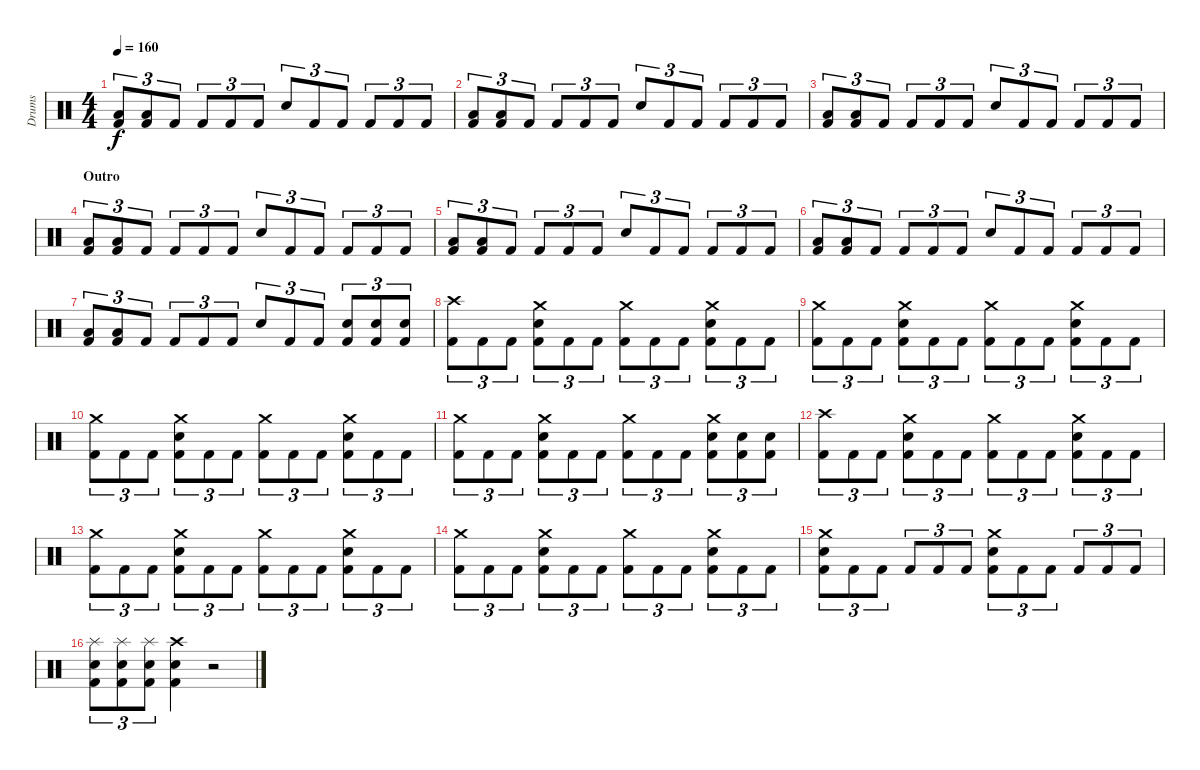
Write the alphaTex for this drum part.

\track ("Drums" "Drums") {instrument percussion}
\staff {score}
\articulation defaults
\ts (4 4)
\tempo 160
\clef neutral
\ks c
("Low Tom (hit)" "Kick (hit) 2").8{tu (3 2) dy f} ("Low Tom (hit)" "Kick (hit) 2").8{tu (3 2)} "Kick (hit) 2".8{tu (3 2)} "Kick (hit) 2".8{tu (3 2)} "Kick (hit) 2".8{tu (3 2)} "Kick (hit) 2".8{tu (3 2)} "Electric Snare (hit)".8{tu (3 2)} "Kick (hit) 2".8{tu (3 2)} "Kick (hit) 2".8{tu (3 2)} "Kick (hit) 2".8{tu (3 2)} "Kick (hit) 2".8{tu (3 2)} "Kick (hit) 2".8{tu (3 2)} |
("Low Tom (hit)" "Kick (hit) 2").8{tu (3 2)} ("Low Tom (hit)" "Kick (hit) 2").8{tu (3 2)} "Kick (hit) 2".8{tu (3 2)} "Kick (hit) 2".8{tu (3 2)} "Kick (hit) 2".8{tu (3 2)} "Kick (hit) 2".8{tu (3 2)} "Electric Snare (hit)".8{tu (3 2)} "Kick (hit) 2".8{tu (3 2)} "Kick (hit) 2".8{tu (3 2)} "Kick (hit) 2".8{tu (3 2)} "Kick (hit) 2".8{tu (3 2)} "Kick (hit) 2".8{tu (3 2)} |
("Low Tom (hit)" "Kick (hit) 2").8{tu (3 2)} ("Low Tom (hit)" "Kick (hit) 2").8{tu (3 2)} "Kick (hit) 2".8{tu (3 2)} "Kick (hit) 2".8{tu (3 2)} "Kick (hit) 2".8{tu (3 2)} "Kick (hit) 2".8{tu (3 2)} "Electric Snare (hit)".8{tu (3 2)} "Kick (hit) 2".8{tu (3 2)} "Kick (hit) 2".8{tu (3 2)} "Kick (hit) 2".8{tu (3 2)} "Kick (hit) 2".8{tu (3 2)} "Kick (hit) 2".8{tu (3 2)} |
\section ("" "Outro")
("Low Tom (hit)" "Kick (hit) 2").8{tu (3 2)} ("Low Tom (hit)" "Kick (hit) 2").8{tu (3 2)} "Kick (hit) 2".8{tu (3 2)} "Kick (hit) 2".8{tu (3 2)} "Kick (hit) 2".8{tu (3 2)} "Kick (hit) 2".8{tu (3 2)} "Electric Snare (hit)".8{tu (3 2)} "Kick (hit) 2".8{tu (3 2)} "Kick (hit) 2".8{tu (3 2)} "Kick (hit) 2".8{tu (3 2)} "Kick (hit) 2".8{tu (3 2)} "Kick (hit) 2".8{tu (3 2)} |
("Low Tom (hit)" "Kick (hit) 2").8{tu (3 2)} ("Low Tom (hit)" "Kick (hit) 2").8{tu (3 2)} "Kick (hit) 2".8{tu (3 2)} "Kick (hit) 2".8{tu (3 2)} "Kick (hit) 2".8{tu (3 2)} "Kick (hit) 2".8{tu (3 2)} "Electric Snare (hit)".8{tu (3 2)} "Kick (hit) 2".8{tu (3 2)} "Kick (hit) 2".8{tu (3 2)} "Kick (hit) 2".8{tu (3 2)} "Kick (hit) 2".8{tu (3 2)} "Kick (hit) 2".8{tu (3 2)} |
("Low Tom (hit)" "Kick (hit) 2").8{tu (3 2)} ("Low Tom (hit)" "Kick (hit) 2").8{tu (3 2)} "Kick (hit) 2".8{tu (3 2)} "Kick (hit) 2".8{tu (3 2)} "Kick (hit) 2".8{tu (3 2)} "Kick (hit) 2".8{tu (3 2)} "Electric Snare (hit)".8{tu (3 2)} "Kick (hit) 2".8{tu (3 2)} "Kick (hit) 2".8{tu (3 2)} "Kick (hit) 2".8{tu (3 2)} "Kick (hit) 2".8{tu (3 2)} "Kick (hit) 2".8{tu (3 2)} |
("Low Tom (hit)" "Kick (hit) 2").8{tu (3 2)} ("Low Tom (hit)" "Kick (hit) 2").8{tu (3 2)} "Kick (hit) 2".8{tu (3 2)} "Kick (hit) 2".8{tu (3 2)} "Kick (hit) 2".8{tu (3 2)} "Kick (hit) 2".8{tu (3 2)} "Electric Snare (hit)".8{tu (3 2)} "Kick (hit) 2".8{tu (3 2)} "Kick (hit) 2".8{tu (3 2)} ("Electric Snare (hit)" "Kick (hit) 2").8{tu (3 2)} ("Electric Snare (hit)" "Kick (hit) 2").8{tu (3 2)} ("Electric Snare (hit)" "Kick (hit) 2").8{tu (3 2)} |
("Crash high (hit)" "Kick (hit) 2").8{tu (3 2)} "Kick (hit) 2".8{tu (3 2)} "Kick (hit) 2".8{tu (3 2)} ("Crash medium (hit)" "Electric Snare (hit)" "Kick (hit) 2").8{tu (3 2)} "Kick (hit) 2".8{tu (3 2)} "Kick (hit) 2".8{tu (3 2)} ("Crash medium (hit)" "Kick (hit) 2").8{tu (3 2)} "Kick (hit) 2".8{tu (3 2)} "Kick (hit) 2".8{tu (3 2)} ("Crash medium (hit)" "Electric Snare (hit)" "Kick (hit) 2").8{tu (3 2)} "Kick (hit) 2".8{tu (3 2)} "Kick (hit) 2".8{tu (3 2)} |
("Crash medium (hit)" "Kick (hit) 2").8{tu (3 2)} "Kick (hit) 2".8{tu (3 2)} "Kick (hit) 2".8{tu (3 2)} ("Crash medium (hit)" "Electric Snare (hit)" "Kick (hit) 2").8{tu (3 2)} "Kick (hit) 2".8{tu (3 2)} "Kick (hit) 2".8{tu (3 2)} ("Crash medium (hit)" "Kick (hit) 2").8{tu (3 2)} "Kick (hit) 2".8{tu (3 2)} "Kick (hit) 2".8{tu (3 2)} ("Crash medium (hit)" "Electric Snare (hit)" "Kick (hit) 2").8{tu (3 2)} "Kick (hit) 2".8{tu (3 2)} "Kick (hit) 2".8{tu (3 2)} |
("Crash medium (hit)" "Kick (hit) 2").8{tu (3 2)} "Kick (hit) 2".8{tu (3 2)} "Kick (hit) 2".8{tu (3 2)} ("Crash medium (hit)" "Electric Snare (hit)" "Kick (hit) 2").8{tu (3 2)} "Kick (hit) 2".8{tu (3 2)} "Kick (hit) 2".8{tu (3 2)} ("Crash medium (hit)" "Kick (hit) 2").8{tu (3 2)} "Kick (hit) 2".8{tu (3 2)} "Kick (hit) 2".8{tu (3 2)} ("Crash medium (hit)" "Electric Snare (hit)" "Kick (hit) 2").8{tu (3 2)} "Kick (hit) 2".8{tu (3 2)} "Kick (hit) 2".8{tu (3 2)} |
("Crash medium (hit)" "Kick (hit) 2").8{tu (3 2)} "Kick (hit) 2".8{tu (3 2)} "Kick (hit) 2".8{tu (3 2)} ("Crash medium (hit)" "Electric Snare (hit)" "Kick (hit) 2").8{tu (3 2)} "Kick (hit) 2".8{tu (3 2)} "Kick (hit) 2".8{tu (3 2)} ("Crash medium (hit)" "Kick (hit) 2").8{tu (3 2)} "Kick (hit) 2".8{tu (3 2)} "Kick (hit) 2".8{tu (3 2)} ("Crash medium (hit)" "Electric Snare (hit)" "Kick (hit) 2").8{tu (3 2)} ("Electric Snare (hit)" "Kick (hit) 2").8{tu (3 2)} ("Electric Snare (hit)" "Kick (hit) 2").8{tu (3 2)} |
("Crash high (hit)" "Kick (hit) 2").8{tu (3 2)} "Kick (hit) 2".8{tu (3 2)} "Kick (hit) 2".8{tu (3 2)} ("Crash medium (hit)" "Electric Snare (hit)" "Kick (hit) 2").8{tu (3 2)} "Kick (hit) 2".8{tu (3 2)} "Kick (hit) 2".8{tu (3 2)} ("Crash medium (hit)" "Kick (hit) 2").8{tu (3 2)} "Kick (hit) 2".8{tu (3 2)} "Kick (hit) 2".8{tu (3 2)} ("Crash medium (hit)" "Electric Snare (hit)" "Kick (hit) 2").8{tu (3 2)} "Kick (hit) 2".8{tu (3 2)} "Kick (hit) 2".8{tu (3 2)} |
("Crash medium (hit)" "Kick (hit) 2").8{tu (3 2)} "Kick (hit) 2".8{tu (3 2)} "Kick (hit) 2".8{tu (3 2)} ("Crash medium (hit)" "Electric Snare (hit)" "Kick (hit) 2").8{tu (3 2)} "Kick (hit) 2".8{tu (3 2)} "Kick (hit) 2".8{tu (3 2)} ("Crash medium (hit)" "Kick (hit) 2").8{tu (3 2)} "Kick (hit) 2".8{tu (3 2)} "Kick (hit) 2".8{tu (3 2)} ("Crash medium (hit)" "Electric Snare (hit)" "Kick (hit) 2").8{tu (3 2)} "Kick (hit) 2".8{tu (3 2)} "Kick (hit) 2".8{tu (3 2)} |
("Crash medium (hit)" "Kick (hit) 2").8{tu (3 2)} "Kick (hit) 2".8{tu (3 2)} "Kick (hit) 2".8{tu (3 2)} ("Crash medium (hit)" "Electric Snare (hit)" "Kick (hit) 2").8{tu (3 2)} "Kick (hit) 2".8{tu (3 2)} "Kick (hit) 2".8{tu (3 2)} ("Crash medium (hit)" "Kick (hit) 2").8{tu (3 2)} "Kick (hit) 2".8{tu (3 2)} "Kick (hit) 2".8{tu (3 2)} ("Crash medium (hit)" "Electric Snare (hit)" "Kick (hit) 2").8{tu (3 2)} "Kick (hit) 2".8{tu (3 2)} "Kick (hit) 2".8{tu (3 2)} |
("Crash medium (hit)" "Electric Snare (hit)" "Kick (hit) 2").8{tu (3 2)} "Kick (hit) 2".8{tu (3 2)} "Kick (hit) 2".8{tu (3 2)} "Kick (hit) 2".8{tu (3 2)} "Kick (hit) 2".8{tu (3 2)} "Kick (hit) 2".8{tu (3 2)} ("Crash medium (hit)" "Electric Snare (hit)" "Kick (hit) 2").8{tu (3 2)} "Kick (hit) 2".8{tu (3 2)} "Kick (hit) 2".8{tu (3 2)} "Kick (hit) 2".8{tu (3 2)} "Kick (hit) 2".8{tu (3 2)} "Kick (hit) 2".8{tu (3 2)} |
("Splash (hit)" "Electric Snare (hit)" "Kick (hit) 2").8{tu (3 2)} ("Splash (hit)" "Electric Snare (hit)" "Kick (hit) 2").8{tu (3 2)} ("Splash (hit)" "Electric Snare (hit)" "Kick (hit) 2").8{tu (3 2)} ("Crash high (hit)" "Electric Snare (hit)" "Kick (hit) 2").4 r.2
